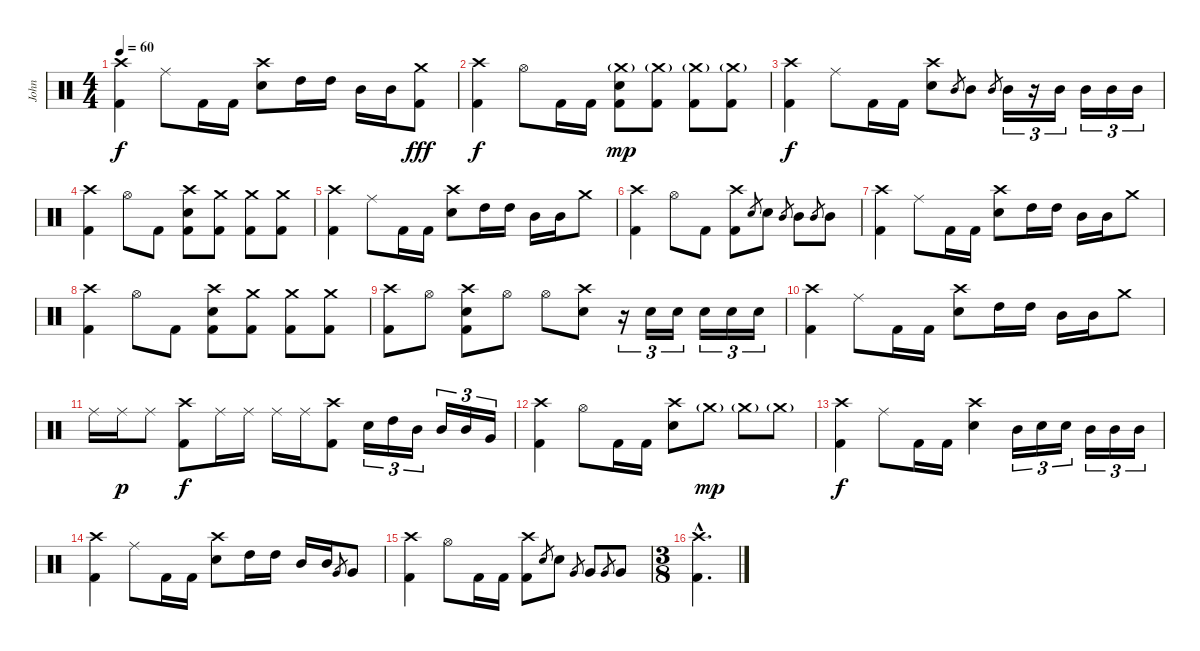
\track ("John" "John") {instrument percussion}
\staff {score}
\articulation defaults
\ts (4 4)
\tempo 60
\clef neutral
\ks c
("Crash high (hit)" "Kick (hit) 2").4{dy f} "Ride (middle)".8 "Kick (hit) 2".16 "Kick (hit) 2".16 ("Crash high (hit)" "Snare (hit) 2").8 "High Tom (hit)".16 "High Tom (hit)".16 "Mid Tom (hit)".16 "Mid Tom (hit)".16 ("Crash medium (hit)" "Kick (hit) 2").8{dy fff} |
("Crash high (hit)" "Kick (hit) 2").4{dy f} "Hi-Hat (open)".8 "Kick (hit) 2".16 "Kick (hit) 2".16 ("Crash medium (hit)"{g} "Snare (hit) 2" "Kick (hit) 2").8{dy mp} ("Crash medium (hit)"{g} "Kick (hit) 2").8 ("Crash medium (hit)"{g} "Kick (hit) 2").8 ("Crash medium (hit)"{g} "Kick (hit) 2").8 |
("Crash high (hit)" "Kick (hit) 2").4{dy f} "Ride (middle)".8 "Kick (hit) 2".16 "Kick (hit) 2".16 ("Crash high (hit)" "Snare (hit) 2").8 "Mid Tom (hit)".8{gr} "Mid Tom (hit)".8 "Mid Tom (hit)".8{gr} "Mid Tom (hit)".16{tu (3 2)} r.16{tu (3 2)} "Mid Tom (hit)".16{tu (3 2)} "Mid Tom (hit)".16{tu (3 2)} "Mid Tom (hit)".16{tu (3 2)} "Mid Tom (hit)".16{tu (3 2)} |
("Crash high (hit)" "Kick (hit) 2").4 "Hi-Hat (open)".8 "Kick (hit) 2".8 ("Crash high (hit)" "Snare (hit) 2" "Kick (hit) 2").8 ("Crash medium (hit)" "Kick (hit) 2").8 ("Crash medium (hit)" "Kick (hit) 2").8 ("Crash medium (hit)" "Kick (hit) 2").8 |
("Crash high (hit)" "Kick (hit) 2").4 "Ride (middle)".8 "Kick (hit) 2".16 "Kick (hit) 2".16 ("Crash high (hit)" "Snare (hit) 2").8 "High Tom (hit)".16 "High Tom (hit)".16 "Mid Tom (hit)".16 "Mid Tom (hit)".16 "Crash medium (hit)".8 |
("Crash high (hit)" "Kick (hit) 2").4 "Hi-Hat (open)".8 "Kick (hit) 2".8 ("Crash high (hit)" "Kick (hit) 2").8 "Snare (hit) 2".8{gr} "Snare (hit) 2".8 "Mid Tom (hit)".8{gr} "Mid Tom (hit)".8 "Mid Tom (hit)".8{gr} "Mid Tom (hit)".8 |
("Crash high (hit)" "Kick (hit) 2").4 "Ride (middle)".8 "Kick (hit) 2".16 "Kick (hit) 2".16 ("Crash high (hit)" "Snare (hit) 2").8 "High Tom (hit)".16 "High Tom (hit)".16 "Mid Tom (hit)".16 "Mid Tom (hit)".16 "Crash medium (hit)".8 |
("Crash high (hit)" "Kick (hit) 2").4 "Hi-Hat (open)".8 "Kick (hit) 2".8 ("Crash high (hit)" "Snare (hit) 2" "Kick (hit) 2").8 ("Crash medium (hit)" "Kick (hit) 2").8 ("Crash medium (hit)" "Kick (hit) 2").8 ("Crash medium (hit)" "Kick (hit) 2").8 |
("Crash high (hit)" "Kick (hit) 2").8 "Hi-Hat (open)".8 ("Crash high (hit)" "Snare (hit) 2" "Kick (hit) 2").8 "Hi-Hat (open)".8 "Hi-Hat (open)".8 ("Crash high (hit)" "Snare (hit) 2").8 r.16{tu (3 2)} "Snare (hit) 2".16{tu (3 2)} "Snare (hit) 2".16{tu (3 2)} "Snare (hit) 2".16{tu (3 2)} "Snare (hit) 2".16{tu (3 2)} "Snare (hit) 2".16{tu (3 2)} |
("Crash high (hit)" "Kick (hit) 2").4 "Ride (middle)".8 "Kick (hit) 2".16 "Kick (hit) 2".16 ("Crash high (hit)" "Snare (hit) 2").8 "High Tom (hit)".16 "High Tom (hit)".16 "Mid Tom (hit)".16 "Mid Tom (hit)".16 "Crash medium (hit)".8 |
"Ride (middle)".16 "Ride (middle)".16{dy p} "Ride (middle)".8 ("Crash high (hit)" "Kick (hit) 2").8{dy f} "Ride (middle)".16 "Ride (middle)".16 "Ride (middle)".16 "Ride (middle)".16 ("Crash high (hit)" "Kick (hit) 2").8 "Snare (hit) 2".16{tu (3 2)} "High Tom (hit)".16{tu (3 2)} "Mid Tom (hit)".16{tu (3 2)} "Mid Tom (hit)".16{tu (3 2)} "Mid Tom (hit)".16{tu (3 2)} "Very Low Tom (hit)".16{tu (3 2)} |
("Crash high (hit)" "Kick (hit) 2").4 "Hi-Hat (open)".8 "Kick (hit) 2".16 "Kick (hit) 2".16 ("Crash high (hit)" "Snare (hit) 2").8 "Crash medium (hit)"{g}.8{dy mp} "Crash medium (hit)"{g}.8 "Crash medium (hit)"{g}.8 |
("Crash high (hit)" "Kick (hit) 2").4{dy f} "Ride (middle)".8 "Kick (hit) 2".16 "Kick (hit) 2".16 ("Crash high (hit)" "Snare (hit) 2").4 "Mid Tom (hit)".16{tu (3 2)} "Snare (hit) 2".16{tu (3 2)} "Snare (hit) 2".16{tu (3 2)} "Mid Tom (hit)".16{tu (3 2)} "Mid Tom (hit)".16{tu (3 2)} "Mid Tom (hit)".16{tu (3 2)} |
("Crash high (hit)" "Kick (hit) 2").4 "Ride (middle)".8 "Kick (hit) 2".16 "Kick (hit) 2".16 ("Crash high (hit)" "Snare (hit) 2").8 "High Tom (hit)".16 "High Tom (hit)".16 "Mid Tom (hit)".16 "Mid Tom (hit)".16 "Very Low Tom (hit)".8{gr} "Very Low Tom (hit)".8 |
("Crash high (hit)" "Kick (hit) 2").4 "Hi-Hat (open)".8 "Kick (hit) 2".16 "Kick (hit) 2".16 ("Crash high (hit)" "Kick (hit) 2").8 "Snare (hit) 2".8{gr} "Snare (hit) 2".8 "Very Low Tom (hit)".8{gr} "Very Low Tom (hit)".8 "Very Low Tom (hit)".8{gr} "Very Low Tom (hit)".8 |
\ts (3 8)
("Crash high (hit)"{hac} "Kick (hit) 2"{hac}).4{d}
